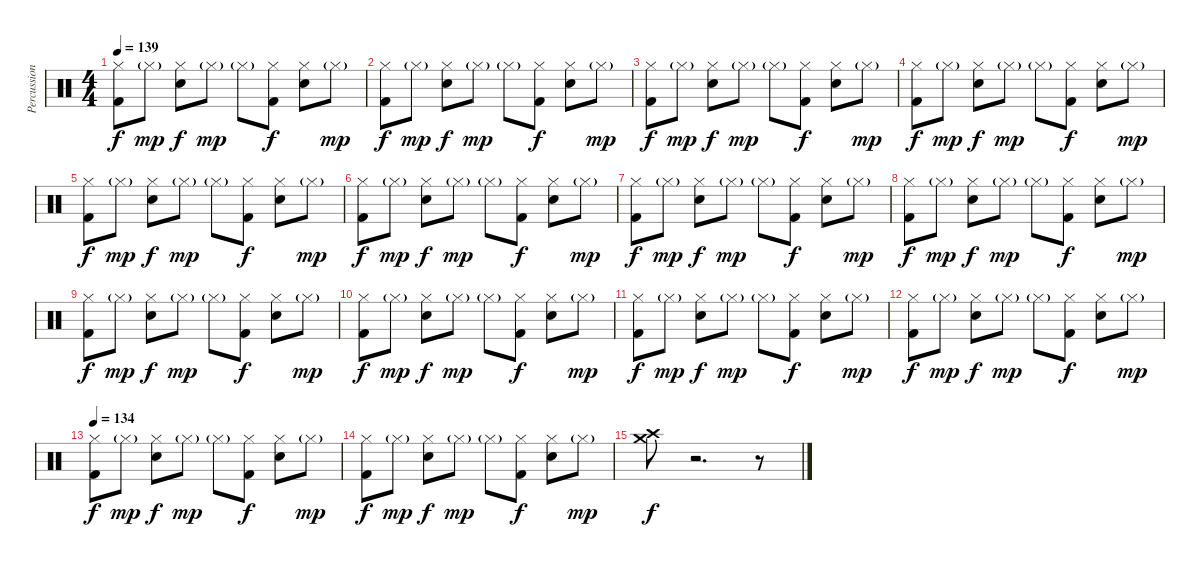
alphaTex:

\track ("Percussion" "Percussion") {instrument percussion}
\staff {score}
\articulation defaults
\ts (4 4)
\tempo 139
\clef neutral
\ks c
("Hi-Hat (closed)" "Kick (hit) 2").8{dy f} "Hi-Hat (closed)"{g}.8{dy mp} ("Hi-Hat (closed)" "Snare (hit) 2").8{dy f} "Hi-Hat (closed)"{g}.8{dy mp} "Hi-Hat (closed)"{g}.8 ("Hi-Hat (closed)" "Kick (hit) 2").8{dy f} ("Hi-Hat (closed)" "Snare (hit) 2").8 "Hi-Hat (closed)"{g}.8{dy mp} |
("Hi-Hat (closed)" "Kick (hit) 2").8{dy f} "Hi-Hat (closed)"{g}.8{dy mp} ("Hi-Hat (closed)" "Snare (hit) 2").8{dy f} "Hi-Hat (closed)"{g}.8{dy mp} "Hi-Hat (closed)"{g}.8 ("Hi-Hat (closed)" "Kick (hit) 2").8{dy f} ("Hi-Hat (closed)" "Snare (hit) 2").8 "Hi-Hat (closed)"{g}.8{dy mp} |
("Hi-Hat (closed)" "Kick (hit) 2").8{dy f} "Hi-Hat (closed)"{g}.8{dy mp} ("Hi-Hat (closed)" "Snare (hit) 2").8{dy f} "Hi-Hat (closed)"{g}.8{dy mp} "Hi-Hat (closed)"{g}.8 ("Hi-Hat (closed)" "Kick (hit) 2").8{dy f} ("Hi-Hat (closed)" "Snare (hit) 2").8 "Hi-Hat (closed)"{g}.8{dy mp} |
("Hi-Hat (closed)" "Kick (hit) 2").8{dy f} "Hi-Hat (closed)"{g}.8{dy mp} ("Hi-Hat (closed)" "Snare (hit) 2").8{dy f} "Hi-Hat (closed)"{g}.8{dy mp} "Hi-Hat (closed)"{g}.8 ("Hi-Hat (closed)" "Kick (hit) 2").8{dy f} ("Hi-Hat (closed)" "Snare (hit) 2").8 "Hi-Hat (closed)"{g}.8{dy mp} |
("Hi-Hat (closed)" "Kick (hit) 2").8{dy f} "Hi-Hat (closed)"{g}.8{dy mp} ("Hi-Hat (closed)" "Snare (hit) 2").8{dy f} "Hi-Hat (closed)"{g}.8{dy mp} "Hi-Hat (closed)"{g}.8 ("Hi-Hat (closed)" "Kick (hit) 2").8{dy f} ("Hi-Hat (closed)" "Snare (hit) 2").8 "Hi-Hat (closed)"{g}.8{dy mp} |
("Hi-Hat (closed)" "Kick (hit) 2").8{dy f} "Hi-Hat (closed)"{g}.8{dy mp} ("Hi-Hat (closed)" "Snare (hit) 2").8{dy f} "Hi-Hat (closed)"{g}.8{dy mp} "Hi-Hat (closed)"{g}.8 ("Hi-Hat (closed)" "Kick (hit) 2").8{dy f} ("Hi-Hat (closed)" "Snare (hit) 2").8 "Hi-Hat (closed)"{g}.8{dy mp} |
("Hi-Hat (closed)" "Kick (hit) 2").8{dy f} "Hi-Hat (closed)"{g}.8{dy mp} ("Hi-Hat (closed)" "Snare (hit) 2").8{dy f} "Hi-Hat (closed)"{g}.8{dy mp} "Hi-Hat (closed)"{g}.8 ("Hi-Hat (closed)" "Kick (hit) 2").8{dy f} ("Hi-Hat (closed)" "Snare (hit) 2").8 "Hi-Hat (closed)"{g}.8{dy mp} |
("Hi-Hat (closed)" "Kick (hit) 2").8{dy f} "Hi-Hat (closed)"{g}.8{dy mp} ("Hi-Hat (closed)" "Snare (hit) 2").8{dy f} "Hi-Hat (closed)"{g}.8{dy mp} "Hi-Hat (closed)"{g}.8 ("Hi-Hat (closed)" "Kick (hit) 2").8{dy f} ("Hi-Hat (closed)" "Snare (hit) 2").8 "Hi-Hat (closed)"{g}.8{dy mp} |
("Hi-Hat (closed)" "Kick (hit) 2").8{dy f} "Hi-Hat (closed)"{g}.8{dy mp} ("Hi-Hat (closed)" "Snare (hit) 2").8{dy f} "Hi-Hat (closed)"{g}.8{dy mp} "Hi-Hat (closed)"{g}.8 ("Hi-Hat (closed)" "Kick (hit) 2").8{dy f} ("Hi-Hat (closed)" "Snare (hit) 2").8 "Hi-Hat (closed)"{g}.8{dy mp} |
("Hi-Hat (closed)" "Kick (hit) 2").8{dy f} "Hi-Hat (closed)"{g}.8{dy mp} ("Hi-Hat (closed)" "Snare (hit) 2").8{dy f} "Hi-Hat (closed)"{g}.8{dy mp} "Hi-Hat (closed)"{g}.8 ("Hi-Hat (closed)" "Kick (hit) 2").8{dy f} ("Hi-Hat (closed)" "Snare (hit) 2").8 "Hi-Hat (closed)"{g}.8{dy mp} |
("Hi-Hat (closed)" "Kick (hit) 2").8{dy f} "Hi-Hat (closed)"{g}.8{dy mp} ("Hi-Hat (closed)" "Snare (hit) 2").8{dy f} "Hi-Hat (closed)"{g}.8{dy mp} "Hi-Hat (closed)"{g}.8 ("Hi-Hat (closed)" "Kick (hit) 2").8{dy f} ("Hi-Hat (closed)" "Snare (hit) 2").8 "Hi-Hat (closed)"{g}.8{dy mp} |
("Hi-Hat (closed)" "Kick (hit) 2").8{dy f} "Hi-Hat (closed)"{g}.8{dy mp} ("Hi-Hat (closed)" "Snare (hit) 2").8{dy f} "Hi-Hat (closed)"{g}.8{dy mp} "Hi-Hat (closed)"{g}.8 ("Hi-Hat (closed)" "Kick (hit) 2").8{dy f} ("Hi-Hat (closed)" "Snare (hit) 2").8 "Hi-Hat (closed)"{g}.8{dy mp} |
\tempo 134
("Hi-Hat (closed)" "Kick (hit) 2").8{dy f} "Hi-Hat (closed)"{g}.8{dy mp} ("Hi-Hat (closed)" "Snare (hit) 2").8{dy f} "Hi-Hat (closed)"{g}.8{dy mp} "Hi-Hat (closed)"{g}.8 ("Hi-Hat (closed)" "Kick (hit) 2").8{dy f} ("Hi-Hat (closed)" "Snare (hit) 2").8 "Hi-Hat (closed)"{g}.8{dy mp} |
("Hi-Hat (closed)" "Kick (hit) 2").8{dy f} "Hi-Hat (closed)"{g}.8{dy mp} ("Hi-Hat (closed)" "Snare (hit) 2").8{dy f} "Hi-Hat (closed)"{g}.8{dy mp} "Hi-Hat (closed)"{g}.8 ("Hi-Hat (closed)" "Kick (hit) 2").8{dy f} ("Hi-Hat (closed)" "Snare (hit) 2").8 "Hi-Hat (closed)"{g}.8{dy mp} |
("Crash medium (hit)" "Crash high (hit)").8{dy f} r.2{d} r.8
